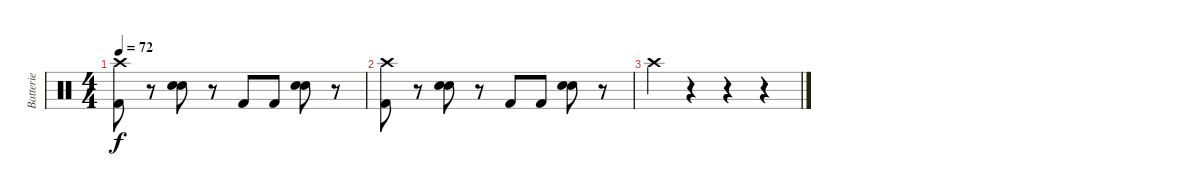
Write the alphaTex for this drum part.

\track ("Batterie" "Batterie") {instrument percussion}
\staff {score}
\articulation defaults
\ts (4 4)
\tempo 72
\clef neutral
\ks c
("Crash high (hit)" "Kick (hit) 2").8{dy f} r.8 ("Snare (hit) 2" "Snare (hit) 2").8 r.8 "Kick (hit) 2".8 "Kick (hit) 2".8 ("Snare (hit) 2" "Snare (hit) 2").8 r.8 |
("Crash high (hit)" "Kick (hit) 2").8 r.8 ("Snare (hit) 2" "Snare (hit) 2").8 r.8 "Kick (hit) 2".8 "Kick (hit) 2".8 ("Snare (hit) 2" "Snare (hit) 2").8 r.8 |
"Crash high (hit)".4 r.4 r.4 r.4
